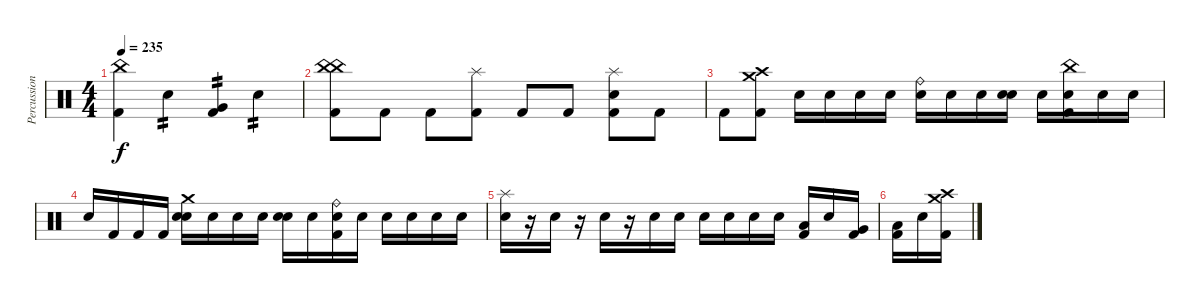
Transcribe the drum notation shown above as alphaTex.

\track ("Percussion" "Percussion") {instrument percussion}
\staff {score}
\articulation defaults
\ts (4 4)
\tempo 235
\clef neutral
\ks c
("China (hit)" "Kick (hit) 2").4{dy f} "Snare (hit) 2".4{tp 2} ("Very Low Tom (hit)" "Kick (hit) 2").4{tp 2} "Snare (hit) 2".4{tp 2} |
("China (hit)" "China (hit)" "Kick (hit) 2").8 "Kick (hit) 2".8 "Kick (hit) 2".8 ("Splash (hit)" "Kick (hit) 2").8 "Kick (hit) 2".8 "Kick (hit) 2".8 ("Splash (hit)" "Snare (hit) 2" "Kick (hit) 2").8 "Kick (hit) 2".8 |
"Kick (hit) 2".8 ("Crash high (hit)" "Crash medium (hit)" "Kick (hit) 2").8 "Snare (hit)".16 "Snare (hit)".16 "Snare (hit)".16 "Snare (hit)".16 ("Ride (bell)" "Snare (hit)").16 "Snare (hit)".16 "Snare (hit)".16 ("Snare (hit) 2" "Snare (hit)").16 "Snare (hit)".16 ("China (hit)" "Kick (hit) 2" "Snare (hit)").16 "Snare (hit)".16 "Snare (hit)".16 |
"Snare (hit)".16 "Kick (hit) 2".16 "Kick (hit) 2".16 "Kick (hit) 2".16 ("Crash medium (hit)" "Snare (hit) 2" "Snare (hit)").16 "Snare (hit)".16 "Snare (hit)".16 "Snare (hit)".16 ("Snare (hit) 2" "Snare (hit)").16 "Snare (hit)".16 ("Ride (bell)" "Kick (hit) 2" "Snare (hit)").16 "Snare (hit)".16 "Snare (hit)".16 "Snare (hit)".16 "Snare (hit)".16 "Snare (hit)".16 |
("Splash (hit)" "Snare (hit) 2").16 r.16 "Snare (hit) 2".16 r.16 "Snare (hit) 2".16 r.16 "Snare (hit) 2".16 "Snare (hit)".16 "Snare (hit) 2".16 "Snare (hit)".16 "Snare (hit) 2".16 "Snare (hit)".16 ("Low Tom (hit)" "Kick (hit) 2").16 "Snare (hit)".16 ("Very Low Tom (hit)" "Kick (hit) 2").16 |
("Kick (hit) 2" "Low Floor Tom (hit)").16 "Snare (hit)".16 ("Crash medium (hit)" "Crash high (hit)" "Kick (hit) 2").16
